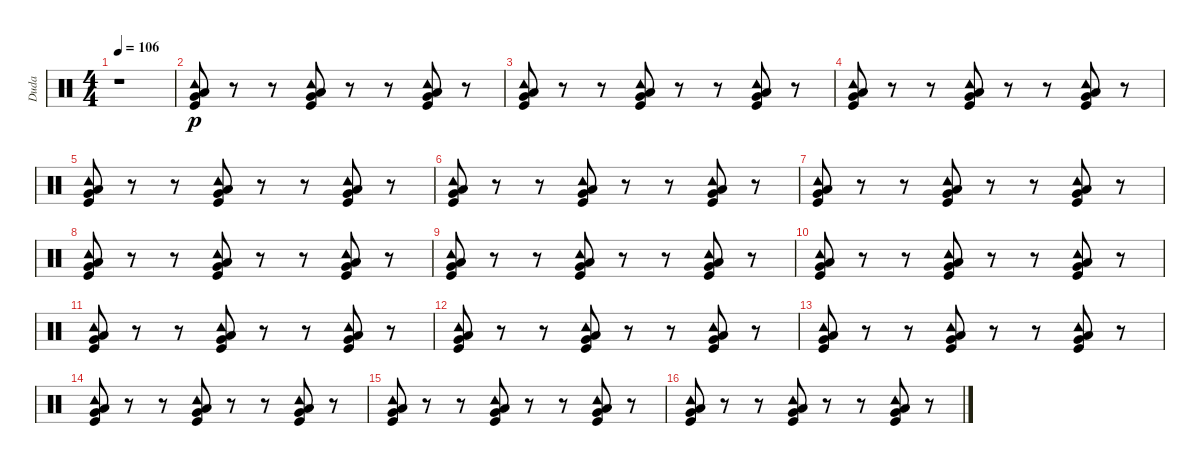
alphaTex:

\track ("Duda" "Duda") {instrument percussion}
\staff {score}
\articulation defaults
\ts (4 4)
\tempo 106
\clef neutral
\ks c
r.1{dy p} |
("Tambourine (hit)" "Low Floor Tom (hit)" "Very Low Tom (hit)" "Kick (hit)").8 r.8 r.8 ("Tambourine (hit)" "Low Floor Tom (hit)" "Very Low Tom (hit)" "Kick (hit)").8 r.8 r.8 ("Tambourine (hit)" "Low Floor Tom (hit)" "Very Low Tom (hit)" "Kick (hit)").8 r.8 |
("Tambourine (hit)" "Low Floor Tom (hit)" "Very Low Tom (hit)" "Kick (hit)").8 r.8 r.8 ("Tambourine (hit)" "Low Floor Tom (hit)" "Very Low Tom (hit)" "Kick (hit)").8 r.8 r.8 ("Tambourine (hit)" "Low Floor Tom (hit)" "Very Low Tom (hit)" "Kick (hit)").8 r.8 |
("Tambourine (hit)" "Low Floor Tom (hit)" "Very Low Tom (hit)" "Kick (hit)").8 r.8 r.8 ("Tambourine (hit)" "Low Floor Tom (hit)" "Very Low Tom (hit)" "Kick (hit)").8 r.8 r.8 ("Tambourine (hit)" "Low Floor Tom (hit)" "Very Low Tom (hit)" "Kick (hit)").8 r.8 |
("Tambourine (hit)" "Low Floor Tom (hit)" "Very Low Tom (hit)" "Kick (hit)").8 r.8 r.8 ("Tambourine (hit)" "Low Floor Tom (hit)" "Very Low Tom (hit)" "Kick (hit)").8 r.8 r.8 ("Tambourine (hit)" "Low Floor Tom (hit)" "Very Low Tom (hit)" "Kick (hit)").8 r.8 |
("Tambourine (hit)" "Low Floor Tom (hit)" "Very Low Tom (hit)" "Kick (hit)").8 r.8 r.8 ("Tambourine (hit)" "Low Floor Tom (hit)" "Very Low Tom (hit)" "Kick (hit)").8 r.8 r.8 ("Tambourine (hit)" "Low Floor Tom (hit)" "Very Low Tom (hit)" "Kick (hit)").8 r.8 |
("Tambourine (hit)" "Low Floor Tom (hit)" "Very Low Tom (hit)" "Kick (hit)").8 r.8 r.8 ("Tambourine (hit)" "Low Floor Tom (hit)" "Very Low Tom (hit)" "Kick (hit)").8 r.8 r.8 ("Tambourine (hit)" "Low Floor Tom (hit)" "Very Low Tom (hit)" "Kick (hit)").8 r.8 |
("Tambourine (hit)" "Low Floor Tom (hit)" "Very Low Tom (hit)" "Kick (hit)").8 r.8 r.8 ("Tambourine (hit)" "Low Floor Tom (hit)" "Very Low Tom (hit)" "Kick (hit)").8 r.8 r.8 ("Tambourine (hit)" "Low Floor Tom (hit)" "Very Low Tom (hit)" "Kick (hit)").8 r.8 |
("Tambourine (hit)" "Low Floor Tom (hit)" "Very Low Tom (hit)" "Kick (hit)").8 r.8 r.8 ("Tambourine (hit)" "Low Floor Tom (hit)" "Very Low Tom (hit)" "Kick (hit)").8 r.8 r.8 ("Tambourine (hit)" "Low Floor Tom (hit)" "Very Low Tom (hit)" "Kick (hit)").8 r.8 |
("Tambourine (hit)" "Low Floor Tom (hit)" "Very Low Tom (hit)" "Kick (hit)").8 r.8 r.8 ("Tambourine (hit)" "Low Floor Tom (hit)" "Very Low Tom (hit)" "Kick (hit)").8 r.8 r.8 ("Tambourine (hit)" "Low Floor Tom (hit)" "Very Low Tom (hit)" "Kick (hit)").8 r.8 |
("Tambourine (hit)" "Low Floor Tom (hit)" "Very Low Tom (hit)" "Kick (hit)").8 r.8 r.8 ("Tambourine (hit)" "Low Floor Tom (hit)" "Very Low Tom (hit)" "Kick (hit)").8 r.8 r.8 ("Tambourine (hit)" "Low Floor Tom (hit)" "Very Low Tom (hit)" "Kick (hit)").8 r.8 |
("Tambourine (hit)" "Low Floor Tom (hit)" "Very Low Tom (hit)" "Kick (hit)").8 r.8 r.8 ("Tambourine (hit)" "Low Floor Tom (hit)" "Very Low Tom (hit)" "Kick (hit)").8 r.8 r.8 ("Tambourine (hit)" "Low Floor Tom (hit)" "Very Low Tom (hit)" "Kick (hit)").8 r.8 |
("Tambourine (hit)" "Low Floor Tom (hit)" "Very Low Tom (hit)" "Kick (hit)").8 r.8 r.8 ("Tambourine (hit)" "Low Floor Tom (hit)" "Very Low Tom (hit)" "Kick (hit)").8 r.8 r.8 ("Tambourine (hit)" "Low Floor Tom (hit)" "Very Low Tom (hit)" "Kick (hit)").8 r.8 |
("Tambourine (hit)" "Low Floor Tom (hit)" "Very Low Tom (hit)" "Kick (hit)").8 r.8 r.8 ("Tambourine (hit)" "Low Floor Tom (hit)" "Very Low Tom (hit)" "Kick (hit)").8 r.8 r.8 ("Tambourine (hit)" "Low Floor Tom (hit)" "Very Low Tom (hit)" "Kick (hit)").8 r.8 |
("Tambourine (hit)" "Low Floor Tom (hit)" "Very Low Tom (hit)" "Kick (hit)").8 r.8 r.8 ("Tambourine (hit)" "Low Floor Tom (hit)" "Very Low Tom (hit)" "Kick (hit)").8 r.8 r.8 ("Tambourine (hit)" "Low Floor Tom (hit)" "Very Low Tom (hit)" "Kick (hit)").8 r.8 |
("Tambourine (hit)" "Low Floor Tom (hit)" "Very Low Tom (hit)" "Kick (hit)").8 r.8 r.8 ("Tambourine (hit)" "Low Floor Tom (hit)" "Very Low Tom (hit)" "Kick (hit)").8 r.8 r.8 ("Tambourine (hit)" "Low Floor Tom (hit)" "Very Low Tom (hit)" "Kick (hit)").8 r.8
